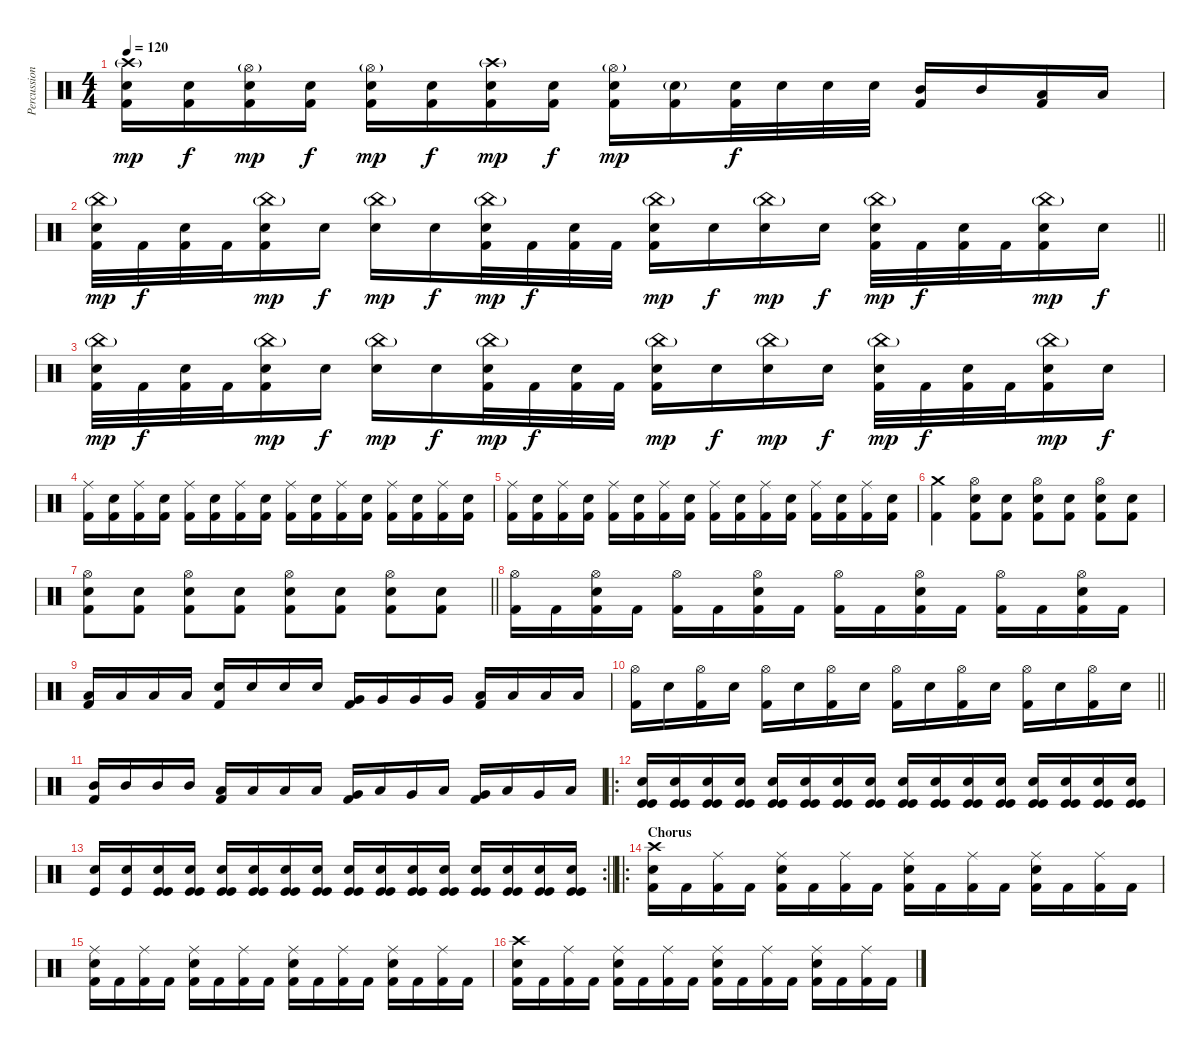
\track ("Percussions" "Percussion") {instrument percussion}
\staff {score}
\articulation defaults
\ts (4 4)
\tempo 120
\clef neutral
\ks c
("Crash high (hit)"{g} "Electric Snare (hit)" "Kick (hit) 2").16{dy mp} ("Electric Snare (hit)" "Kick (hit) 2").16{dy f} ("Hi-Hat (open)"{g} "Electric Snare (hit)" "Kick (hit) 2").16{dy mp} ("Electric Snare (hit)" "Kick (hit) 2").16{dy f} ("Hi-Hat (open)"{g} "Electric Snare (hit)" "Kick (hit) 2").16{dy mp} ("Electric Snare (hit)" "Kick (hit) 2").16{dy f} ("Crash high (hit)"{g} "Electric Snare (hit)" "Kick (hit) 2").16{dy mp} ("Electric Snare (hit)" "Kick (hit) 2").16{dy f} ("Hi-Hat (open)"{g} "Electric Snare (hit)" "Kick (hit) 2").16{dy mp} ("Electric Snare (hit)"{g} "Kick (hit) 2").16 ("Electric Snare (hit)" "Kick (hit) 2").32{dy f} "Electric Snare (hit)".32 "Electric Snare (hit)".32 "Electric Snare (hit)".32 ("Mid Tom (hit)" "Kick (hit) 2").16 "Mid Tom (hit)".16 ("Low Tom (hit)" "Kick (hit) 2").16 "Low Tom (hit)".16 |
\barLineRight lightlight
("China (hit)"{g} "Electric Snare (hit)" "Kick (hit) 2").32{dy mp} "Kick (hit) 2".32{dy f} ("Electric Snare (hit)" "Kick (hit) 2").32 "Kick (hit) 2".32 ("China (hit)"{g} "Electric Snare (hit)" "Kick (hit) 2").16{dy mp} "Electric Snare (hit)".16{dy f} ("China (hit)"{g} "Electric Snare (hit)").16{dy mp} "Electric Snare (hit)".16{dy f} ("China (hit)"{g} "Electric Snare (hit)" "Kick (hit) 2").32{dy mp} "Kick (hit) 2".32{dy f} ("Electric Snare (hit)" "Kick (hit) 2").32 "Kick (hit) 2".32 ("China (hit)"{g} "Electric Snare (hit)" "Kick (hit) 2").16{dy mp} "Electric Snare (hit)".16{dy f} ("China (hit)"{g} "Electric Snare (hit)").16{dy mp} "Electric Snare (hit)".16{dy f} ("China (hit)"{g} "Electric Snare (hit)" "Kick (hit) 2").32{dy mp} "Kick (hit) 2".32{dy f} ("Electric Snare (hit)" "Kick (hit) 2").32 "Kick (hit) 2".32 ("China (hit)"{g} "Electric Snare (hit)" "Kick (hit) 2").16{dy mp} "Electric Snare (hit)".16{dy f} |
("China (hit)"{g} "Electric Snare (hit)" "Kick (hit) 2").32{dy mp} "Kick (hit) 2".32{dy f} ("Electric Snare (hit)" "Kick (hit) 2").32 "Kick (hit) 2".32 ("China (hit)"{g} "Electric Snare (hit)" "Kick (hit) 2").16{dy mp} "Electric Snare (hit)".16{dy f} ("China (hit)"{g} "Electric Snare (hit)").16{dy mp} "Electric Snare (hit)".16{dy f} ("China (hit)"{g} "Electric Snare (hit)" "Kick (hit) 2").32{dy mp} "Kick (hit) 2".32{dy f} ("Electric Snare (hit)" "Kick (hit) 2").32 "Kick (hit) 2".32 ("China (hit)"{g} "Electric Snare (hit)" "Kick (hit) 2").16{dy mp} "Electric Snare (hit)".16{dy f} ("China (hit)"{g} "Electric Snare (hit)").16{dy mp} "Electric Snare (hit)".16{dy f} ("China (hit)"{g} "Electric Snare (hit)" "Kick (hit) 2").32{dy mp} "Kick (hit) 2".32{dy f} ("Electric Snare (hit)" "Kick (hit) 2").32 "Kick (hit) 2".32 ("China (hit)"{g} "Electric Snare (hit)" "Kick (hit) 2").16{dy mp} "Electric Snare (hit)".16{dy f} |
("Ride (middle)" "Kick (hit) 2").16 ("Electric Snare (hit)" "Kick (hit) 2").16 ("Ride (middle)" "Kick (hit) 2").16 ("Electric Snare (hit)" "Kick (hit) 2").16 ("Ride (middle)" "Kick (hit) 2").16 ("Electric Snare (hit)" "Kick (hit) 2").16 ("Ride (middle)" "Kick (hit) 2").16 ("Electric Snare (hit)" "Kick (hit) 2").16 ("Ride (middle)" "Kick (hit) 2").16 ("Electric Snare (hit)" "Kick (hit) 2").16 ("Ride (middle)" "Kick (hit) 2").16 ("Electric Snare (hit)" "Kick (hit) 2").16 ("Ride (middle)" "Kick (hit) 2").16 ("Electric Snare (hit)" "Kick (hit) 2").16 ("Ride (middle)" "Kick (hit) 2").16 ("Electric Snare (hit)" "Kick (hit) 2").16 |
("Ride (middle)" "Kick (hit) 2").16 ("Electric Snare (hit)" "Kick (hit) 2").16 ("Ride (middle)" "Kick (hit) 2").16 ("Electric Snare (hit)" "Kick (hit) 2").16 ("Ride (middle)" "Kick (hit) 2").16 ("Electric Snare (hit)" "Kick (hit) 2").16 ("Ride (middle)" "Kick (hit) 2").16 ("Electric Snare (hit)" "Kick (hit) 2").16 ("Ride (middle)" "Kick (hit) 2").16 ("Electric Snare (hit)" "Kick (hit) 2").16 ("Ride (middle)" "Kick (hit) 2").16 ("Electric Snare (hit)" "Kick (hit) 2").16 ("Ride (middle)" "Kick (hit) 2").16 ("Electric Snare (hit)" "Kick (hit) 2").16 ("Ride (middle)" "Kick (hit) 2").16 ("Electric Snare (hit)" "Kick (hit) 2").16 |
("Crash medium (hit)" "Kick (hit) 2").4 ("Hi-Hat (open)" "Electric Snare (hit)" "Kick (hit) 2").8 ("Electric Snare (hit)" "Kick (hit) 2").8 ("Hi-Hat (open)" "Electric Snare (hit)" "Kick (hit) 2").8 ("Electric Snare (hit)" "Kick (hit) 2").8 ("Hi-Hat (open)" "Electric Snare (hit)" "Kick (hit) 2").8 ("Electric Snare (hit)" "Kick (hit) 2").8 |
\barLineRight lightlight
("Hi-Hat (open)" "Electric Snare (hit)" "Kick (hit) 2").8 ("Electric Snare (hit)" "Kick (hit) 2").8 ("Hi-Hat (open)" "Electric Snare (hit)" "Kick (hit) 2").8 ("Electric Snare (hit)" "Kick (hit) 2").8 ("Hi-Hat (open)" "Electric Snare (hit)" "Kick (hit) 2").8 ("Electric Snare (hit)" "Kick (hit) 2").8 ("Hi-Hat (open)" "Electric Snare (hit)" "Kick (hit) 2").8 ("Electric Snare (hit)" "Kick (hit) 2").8 |
("Hi-Hat (open)" "Kick (hit) 2").16 "Kick (hit) 2".16 ("Hi-Hat (open)" "Electric Snare (hit)" "Kick (hit) 2").16 "Kick (hit) 2".16 ("Hi-Hat (open)" "Kick (hit) 2").16 "Kick (hit) 2".16 ("Hi-Hat (open)" "Electric Snare (hit)" "Kick (hit) 2").16 "Kick (hit) 2".16 ("Hi-Hat (open)" "Kick (hit) 2").16 "Kick (hit) 2".16 ("Hi-Hat (open)" "Electric Snare (hit)" "Kick (hit) 2").16 "Kick (hit) 2".16 ("Hi-Hat (open)" "Kick (hit) 2").16 "Kick (hit) 2".16 ("Hi-Hat (open)" "Electric Snare (hit)" "Kick (hit) 2").16 "Kick (hit) 2".16 |
("Low Tom (hit)" "Kick (hit) 2").16 "Low Tom (hit)".16 "Low Tom (hit)".16 "Low Tom (hit)".16 ("Electric Snare (hit)" "Kick (hit) 2").16 "Electric Snare (hit)".16 "Electric Snare (hit)".16 "Electric Snare (hit)".16 ("Very Low Tom (hit)" "Kick (hit) 2").16 "Very Low Tom (hit)".16 "Very Low Tom (hit)".16 "Very Low Tom (hit)".16 ("Low Floor Tom (hit)" "Kick (hit) 2").16 "Low Floor Tom (hit)".16 "Low Floor Tom (hit)".16 "Low Floor Tom (hit)".16 |
\barLineRight lightlight
("Hi-Hat (open)" "Kick (hit) 2").16 "Electric Snare (hit)".16 ("Hi-Hat (open)" "Kick (hit) 2").16 "Electric Snare (hit)".16 ("Hi-Hat (open)" "Kick (hit) 2").16 "Electric Snare (hit)".16 ("Hi-Hat (open)" "Kick (hit) 2").16 "Electric Snare (hit)".16 ("Hi-Hat (open)" "Kick (hit) 2").16 "Electric Snare (hit)".16 ("Hi-Hat (open)" "Kick (hit) 2").16 "Electric Snare (hit)".16 ("Hi-Hat (open)" "Kick (hit) 2").16 "Electric Snare (hit)".16 ("Hi-Hat (open)" "Kick (hit) 2").16 "Electric Snare (hit)".16 |
("Mid Tom (hit)" "Kick (hit) 2").16 "Mid Tom (hit)".16 "Mid Tom (hit)".16 "Mid Tom (hit)".16 ("Low Tom (hit)" "Kick (hit) 2").16 "Low Tom (hit)".16 "Low Tom (hit)".16 "Low Tom (hit)".16 ("Very Low Tom (hit)" "Kick (hit) 2").16 "Low Floor Tom (hit)".16 "Very Low Tom (hit)".16 "Low Floor Tom (hit)".16 ("Very Low Tom (hit)" "Kick (hit) 2").16 "Low Floor Tom (hit)".16 "Very Low Tom (hit)".16 "Low Floor Tom (hit)".16 |
\ro
("Electric Snare (hit)" "Kick (hit)" "Kick (hit)").16 ("Electric Snare (hit)" "Kick (hit)" "Kick (hit)").16 ("Electric Snare (hit)" "Kick (hit)" "Kick (hit)").16 ("Electric Snare (hit)" "Kick (hit)" "Kick (hit)").16 ("Electric Snare (hit)" "Kick (hit)" "Kick (hit)").16 ("Electric Snare (hit)" "Kick (hit)" "Kick (hit)").16 ("Electric Snare (hit)" "Kick (hit)" "Kick (hit)").16 ("Electric Snare (hit)" "Kick (hit)" "Kick (hit)").16 ("Electric Snare (hit)" "Kick (hit)" "Kick (hit)").16 ("Electric Snare (hit)" "Kick (hit)" "Kick (hit)").16 ("Electric Snare (hit)" "Kick (hit)" "Kick (hit)").16 ("Electric Snare (hit)" "Kick (hit)" "Kick (hit)").16 ("Electric Snare (hit)" "Kick (hit)" "Kick (hit)").16 ("Electric Snare (hit)" "Kick (hit)" "Kick (hit)").16 ("Electric Snare (hit)" "Kick (hit)" "Kick (hit)").16 ("Electric Snare (hit)" "Kick (hit)" "Kick (hit)").16 |
\rc 2
\barLineRight lightlight
("Electric Snare (hit)" "Kick (hit)").16 ("Electric Snare (hit)" "Kick (hit)").16 ("Electric Snare (hit)" "Kick (hit)" "Kick (hit)").16 ("Electric Snare (hit)" "Kick (hit)" "Kick (hit)").16 ("Electric Snare (hit)" "Kick (hit)" "Kick (hit)").16 ("Electric Snare (hit)" "Kick (hit)" "Kick (hit)").16 ("Electric Snare (hit)" "Kick (hit)" "Kick (hit)").16 ("Electric Snare (hit)" "Kick (hit)" "Kick (hit)").16 ("Electric Snare (hit)" "Kick (hit)" "Kick (hit)").16 ("Electric Snare (hit)" "Kick (hit)" "Kick (hit)").16 ("Electric Snare (hit)" "Kick (hit)" "Kick (hit)").16 ("Electric Snare (hit)" "Kick (hit)" "Kick (hit)").16 ("Electric Snare (hit)" "Kick (hit)" "Kick (hit)").16 ("Electric Snare (hit)" "Kick (hit)" "Kick (hit)").16 ("Electric Snare (hit)" "Kick (hit)" "Kick (hit)").16 ("Electric Snare (hit)" "Kick (hit)" "Kick (hit)").16 |
\ro
\section ("" "Chorus")
("Crash high (hit)" "Electric Snare (hit)" "Kick (hit) 2").16 "Kick (hit) 2".16 ("Ride (middle)" "Kick (hit) 2").16 "Kick (hit) 2".16 ("Ride (middle)" "Electric Snare (hit)" "Kick (hit) 2").16 "Kick (hit) 2".16 ("Ride (middle)" "Kick (hit) 2").16 "Kick (hit) 2".16 ("Ride (middle)" "Electric Snare (hit)" "Kick (hit) 2").16 "Kick (hit) 2".16 ("Ride (middle)" "Kick (hit) 2").16 "Kick (hit) 2".16 ("Ride (middle)" "Electric Snare (hit)" "Kick (hit) 2").16 "Kick (hit) 2".16 ("Ride (middle)" "Kick (hit) 2").16 "Kick (hit) 2".16 |
("Ride (middle)" "Electric Snare (hit)" "Kick (hit) 2").16 "Kick (hit) 2".16 ("Ride (middle)" "Kick (hit) 2").16 "Kick (hit) 2".16 ("Ride (middle)" "Electric Snare (hit)" "Kick (hit) 2").16 "Kick (hit) 2".16 ("Ride (middle)" "Kick (hit) 2").16 "Kick (hit) 2".16 ("Ride (middle)" "Electric Snare (hit)" "Kick (hit) 2").16 "Kick (hit) 2".16 ("Ride (middle)" "Kick (hit) 2").16 "Kick (hit) 2".16 ("Ride (middle)" "Electric Snare (hit)" "Kick (hit) 2").16 "Kick (hit) 2".16 ("Ride (middle)" "Kick (hit) 2").16 "Kick (hit) 2".16 |
("Crash high (hit)" "Electric Snare (hit)" "Kick (hit) 2").16 "Kick (hit) 2".16 ("Ride (middle)" "Kick (hit) 2").16 "Kick (hit) 2".16 ("Ride (middle)" "Electric Snare (hit)" "Kick (hit) 2").16 "Kick (hit) 2".16 ("Ride (middle)" "Kick (hit) 2").16 "Kick (hit) 2".16 ("Ride (middle)" "Electric Snare (hit)" "Kick (hit) 2").16 "Kick (hit) 2".16 ("Ride (middle)" "Kick (hit) 2").16 "Kick (hit) 2".16 ("Ride (middle)" "Electric Snare (hit)" "Kick (hit) 2").16 "Kick (hit) 2".16 ("Ride (middle)" "Kick (hit) 2").16 "Kick (hit) 2".16
